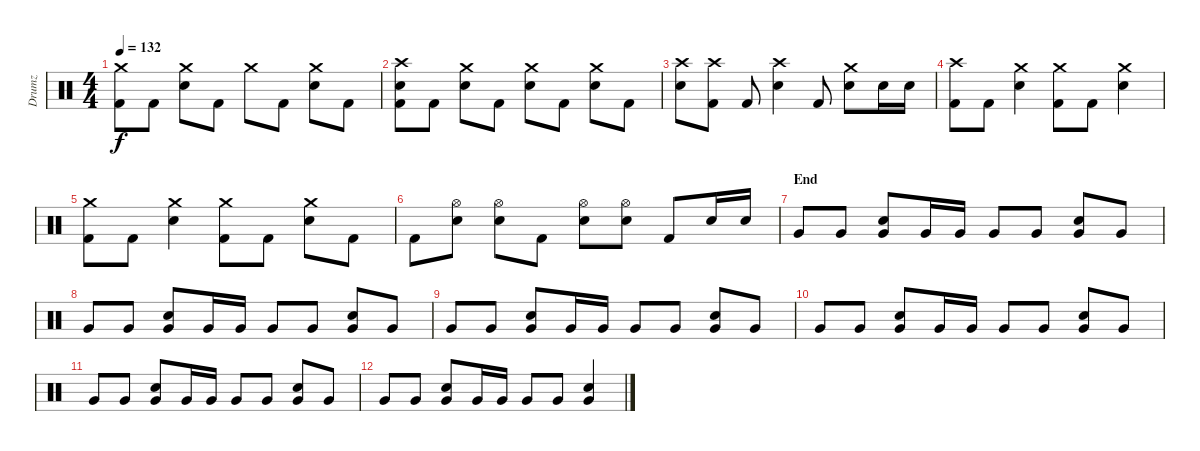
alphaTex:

\track ("Drumz" "Drumz") {instrument percussion}
\staff {score}
\articulation defaults
\ts (4 4)
\tempo 132
\clef neutral
\ks c
("Crash medium (hit)" "Kick (hit) 2").8{dy f} "Kick (hit) 2".8 ("Crash medium (hit)" "Snare (hit) 2").8 "Kick (hit) 2".8 "Crash medium (hit)".8 "Kick (hit) 2".8 ("Crash medium (hit)" "Snare (hit) 2").8 "Kick (hit) 2".8 |
("Crash high (hit)" "Snare (hit) 2" "Kick (hit) 2").8 "Kick (hit) 2".8 ("Crash medium (hit)" "Snare (hit) 2").8 "Kick (hit) 2".8 ("Crash medium (hit)" "Snare (hit) 2").8 "Kick (hit) 2".8 ("Crash medium (hit)" "Snare (hit) 2").8 "Kick (hit) 2".8 |
("Crash high (hit)" "Snare (hit) 2").8 ("Crash high (hit)" "Kick (hit) 2").8 "Kick (hit) 2".8 ("Crash high (hit)" "Snare (hit) 2").4 "Kick (hit) 2".8 ("Crash medium (hit)" "Snare (hit) 2").8 "Snare (hit) 2".16 "Snare (hit) 2".16 |
("Crash high (hit)" "Kick (hit) 2").8 "Kick (hit) 2".8 ("Crash medium (hit)" "Snare (hit) 2").4 ("Crash medium (hit)" "Kick (hit) 2").8 "Kick (hit) 2".8 ("Crash medium (hit)" "Snare (hit) 2").4 |
("Crash medium (hit)" "Kick (hit) 2").8 "Kick (hit) 2".8 ("Crash medium (hit)" "Snare (hit) 2").4 ("Crash medium (hit)" "Kick (hit) 2").8 "Kick (hit) 2".8 ("Crash medium (hit)" "Snare (hit) 2").8 "Kick (hit) 2".8 |
"Kick (hit) 2".8 ("Hi-Hat (open)" "Snare (hit) 2").8 ("Hi-Hat (open)" "Snare (hit) 2").8 "Kick (hit) 2".8 ("Hi-Hat (open)" "Snare (hit) 2").8 ("Hi-Hat (open)" "Snare (hit) 2").8 "Kick (hit) 2".8 "Snare (hit) 2".16 "Snare (hit) 2".16 |
\section ("" "End")
"Very Low Tom (hit)".8 "Very Low Tom (hit)".8 ("Snare (hit) 2" "Very Low Tom (hit)").8 "Very Low Tom (hit)".16 "Very Low Tom (hit)".16 "Very Low Tom (hit)".8 "Very Low Tom (hit)".8 ("Snare (hit) 2" "Very Low Tom (hit)").8 "Very Low Tom (hit)".8 |
"Very Low Tom (hit)".8 "Very Low Tom (hit)".8 ("Snare (hit) 2" "Very Low Tom (hit)").8 "Very Low Tom (hit)".16 "Very Low Tom (hit)".16 "Very Low Tom (hit)".8 "Very Low Tom (hit)".8 ("Snare (hit) 2" "Very Low Tom (hit)").8 "Very Low Tom (hit)".8 |
"Very Low Tom (hit)".8 "Very Low Tom (hit)".8 ("Snare (hit) 2" "Very Low Tom (hit)").8 "Very Low Tom (hit)".16 "Very Low Tom (hit)".16 "Very Low Tom (hit)".8 "Very Low Tom (hit)".8 ("Snare (hit) 2" "Very Low Tom (hit)").8 "Very Low Tom (hit)".8 |
"Very Low Tom (hit)".8 "Very Low Tom (hit)".8 ("Snare (hit) 2" "Very Low Tom (hit)").8 "Very Low Tom (hit)".16 "Very Low Tom (hit)".16 "Very Low Tom (hit)".8 "Very Low Tom (hit)".8 ("Snare (hit) 2" "Very Low Tom (hit)").8 "Very Low Tom (hit)".8 |
"Very Low Tom (hit)".8 "Very Low Tom (hit)".8 ("Snare (hit) 2" "Very Low Tom (hit)").8 "Very Low Tom (hit)".16 "Very Low Tom (hit)".16 "Very Low Tom (hit)".8 "Very Low Tom (hit)".8 ("Snare (hit) 2" "Very Low Tom (hit)").8 "Very Low Tom (hit)".8 |
"Very Low Tom (hit)".8 "Very Low Tom (hit)".8 ("Snare (hit) 2" "Very Low Tom (hit)").8 "Very Low Tom (hit)".16 "Very Low Tom (hit)".16 "Very Low Tom (hit)".8 "Very Low Tom (hit)".8 ("Snare (hit) 2" "Very Low Tom (hit)").4
